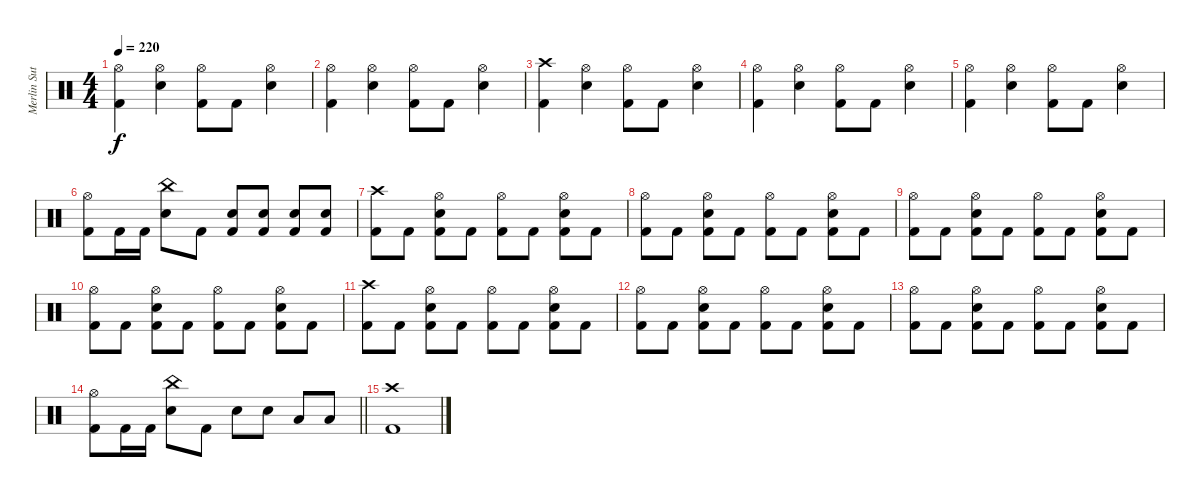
\track ("Merlin Sutter" "Merlin Sut") {instrument percussion}
\staff {score}
\articulation defaults
\ts (4 4)
\tempo 220
\clef neutral
\ks c
("Hi-Hat (open)" "Kick (hit) 2").4{dy f} ("Hi-Hat (open)" "Snare (hit) 2").4 ("Hi-Hat (open)" "Kick (hit) 2").8 "Kick (hit) 2".8 ("Hi-Hat (open)" "Snare (hit) 2").4 |
("Hi-Hat (open)" "Kick (hit) 2").4 ("Hi-Hat (open)" "Snare (hit) 2").4 ("Hi-Hat (open)" "Kick (hit) 2").8 "Kick (hit) 2".8 ("Hi-Hat (open)" "Snare (hit) 2").4 |
("Crash high (hit)" "Kick (hit) 2").4 ("Hi-Hat (open)" "Snare (hit) 2").4 ("Hi-Hat (open)" "Kick (hit) 2").8 "Kick (hit) 2".8 ("Hi-Hat (open)" "Snare (hit) 2").4 |
("Hi-Hat (open)" "Kick (hit) 2").4 ("Hi-Hat (open)" "Snare (hit) 2").4 ("Hi-Hat (open)" "Kick (hit) 2").8 "Kick (hit) 2".8 ("Hi-Hat (open)" "Snare (hit) 2").4 |
("Hi-Hat (open)" "Kick (hit) 2").4 ("Hi-Hat (open)" "Snare (hit) 2").4 ("Hi-Hat (open)" "Kick (hit) 2").8 "Kick (hit) 2".8 ("Hi-Hat (open)" "Snare (hit) 2").4 |
("Hi-Hat (open)" "Kick (hit) 2").8 "Kick (hit) 2".16 "Kick (hit) 2".16 ("China (hit)" "Snare (hit) 2").8 "Kick (hit) 2".8 ("Snare (hit) 2" "Kick (hit) 2").8 ("Snare (hit) 2" "Kick (hit) 2").8 ("Snare (hit) 2" "Kick (hit) 2").8 ("Snare (hit) 2" "Kick (hit) 2").8 |
("Crash high (hit)" "Kick (hit) 2").8 "Kick (hit) 2".8 ("Hi-Hat (open)" "Snare (hit) 2" "Kick (hit) 2").8 "Kick (hit) 2".8 ("Hi-Hat (open)" "Kick (hit) 2").8 "Kick (hit) 2".8 ("Hi-Hat (open)" "Snare (hit) 2" "Kick (hit) 2").8 "Kick (hit) 2".8 |
("Hi-Hat (open)" "Kick (hit) 2").8 "Kick (hit) 2".8 ("Hi-Hat (open)" "Snare (hit) 2" "Kick (hit) 2").8 "Kick (hit) 2".8 ("Hi-Hat (open)" "Kick (hit) 2").8 "Kick (hit) 2".8 ("Hi-Hat (open)" "Snare (hit) 2" "Kick (hit) 2").8 "Kick (hit) 2".8 |
("Hi-Hat (open)" "Kick (hit) 2").8 "Kick (hit) 2".8 ("Hi-Hat (open)" "Snare (hit) 2" "Kick (hit) 2").8 "Kick (hit) 2".8 ("Hi-Hat (open)" "Kick (hit) 2").8 "Kick (hit) 2".8 ("Hi-Hat (open)" "Snare (hit) 2" "Kick (hit) 2").8 "Kick (hit) 2".8 |
("Hi-Hat (open)" "Kick (hit) 2").8 "Kick (hit) 2".8 ("Hi-Hat (open)" "Snare (hit) 2" "Kick (hit) 2").8 "Kick (hit) 2".8 ("Hi-Hat (open)" "Kick (hit) 2").8 "Kick (hit) 2".8 ("Hi-Hat (open)" "Snare (hit) 2" "Kick (hit) 2").8 "Kick (hit) 2".8 |
("Crash high (hit)" "Kick (hit) 2").8 "Kick (hit) 2".8 ("Hi-Hat (open)" "Snare (hit) 2" "Kick (hit) 2").8 "Kick (hit) 2".8 ("Hi-Hat (open)" "Kick (hit) 2").8 "Kick (hit) 2".8 ("Hi-Hat (open)" "Snare (hit) 2" "Kick (hit) 2").8 "Kick (hit) 2".8 |
("Hi-Hat (open)" "Kick (hit) 2").8 "Kick (hit) 2".8 ("Hi-Hat (open)" "Snare (hit) 2" "Kick (hit) 2").8 "Kick (hit) 2".8 ("Hi-Hat (open)" "Kick (hit) 2").8 "Kick (hit) 2".8 ("Hi-Hat (open)" "Snare (hit) 2" "Kick (hit) 2").8 "Kick (hit) 2".8 |
("Hi-Hat (open)" "Kick (hit) 2").8 "Kick (hit) 2".8 ("Hi-Hat (open)" "Snare (hit) 2" "Kick (hit) 2").8 "Kick (hit) 2".8 ("Hi-Hat (open)" "Kick (hit) 2").8 "Kick (hit) 2".8 ("Hi-Hat (open)" "Snare (hit) 2" "Kick (hit) 2").8 "Kick (hit) 2".8 |
\barLineRight lightlight
("Hi-Hat (open)" "Kick (hit) 2").8 "Kick (hit) 2".16 "Kick (hit) 2".16 ("China (hit)" "Snare (hit) 2").8 "Kick (hit) 2".8 "Snare (hit) 2".8 "Snare (hit) 2".8 "Low Tom (hit)".8 "Low Tom (hit)".8 |
("Crash high (hit)" "Kick (hit) 2").1
